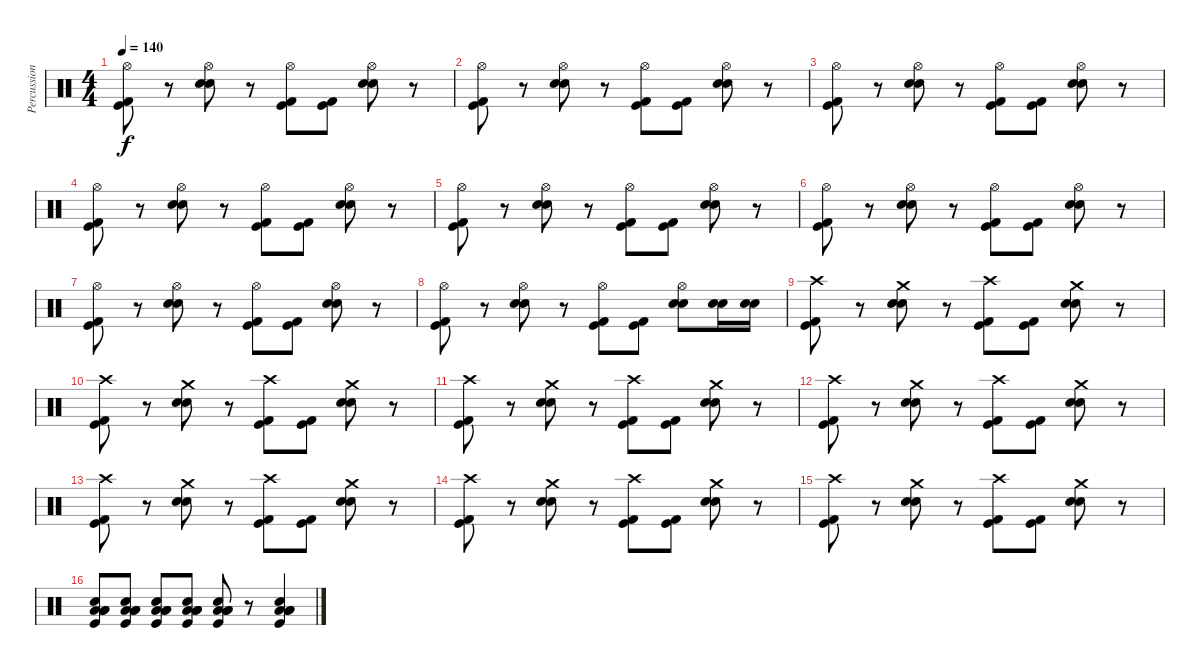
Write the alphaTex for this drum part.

\track ("Percussions" "Percussion") {instrument percussion}
\staff {score}
\articulation defaults
\ts (4 4)
\tempo 140
\clef neutral
\ks c
("Hi-Hat (open)" "Kick (hit)" "Kick (hit) 2").8{dy f} r.8 ("Hi-Hat (open)" "Snare (hit) 2" "Electric Snare (hit)").8 r.8 ("Hi-Hat (open)" "Kick (hit)" "Kick (hit) 2").8 ("Kick (hit)" "Kick (hit) 2").8 ("Hi-Hat (open)" "Snare (hit) 2" "Electric Snare (hit)").8 r.8 |
("Hi-Hat (open)" "Kick (hit)" "Kick (hit) 2").8 r.8 ("Hi-Hat (open)" "Snare (hit) 2" "Electric Snare (hit)").8 r.8 ("Hi-Hat (open)" "Kick (hit)" "Kick (hit) 2").8 ("Kick (hit)" "Kick (hit) 2").8 ("Hi-Hat (open)" "Snare (hit) 2" "Electric Snare (hit)").8 r.8 |
("Hi-Hat (open)" "Kick (hit)" "Kick (hit) 2").8 r.8 ("Hi-Hat (open)" "Snare (hit) 2" "Electric Snare (hit)").8 r.8 ("Hi-Hat (open)" "Kick (hit)" "Kick (hit) 2").8 ("Kick (hit)" "Kick (hit) 2").8 ("Hi-Hat (open)" "Snare (hit) 2" "Electric Snare (hit)").8 r.8 |
("Hi-Hat (open)" "Kick (hit)" "Kick (hit) 2").8 r.8 ("Hi-Hat (open)" "Snare (hit) 2" "Electric Snare (hit)").8 r.8 ("Hi-Hat (open)" "Kick (hit)" "Kick (hit) 2").8 ("Kick (hit)" "Kick (hit) 2").8 ("Hi-Hat (open)" "Snare (hit) 2" "Electric Snare (hit)").8 r.8 |
("Hi-Hat (open)" "Kick (hit)" "Kick (hit) 2").8 r.8 ("Hi-Hat (open)" "Snare (hit) 2" "Electric Snare (hit)").8 r.8 ("Hi-Hat (open)" "Kick (hit)" "Kick (hit) 2").8 ("Kick (hit)" "Kick (hit) 2").8 ("Hi-Hat (open)" "Snare (hit) 2" "Electric Snare (hit)").8 r.8 |
("Hi-Hat (open)" "Kick (hit)" "Kick (hit) 2").8 r.8 ("Hi-Hat (open)" "Snare (hit) 2" "Electric Snare (hit)").8 r.8 ("Hi-Hat (open)" "Kick (hit)" "Kick (hit) 2").8 ("Kick (hit)" "Kick (hit) 2").8 ("Hi-Hat (open)" "Snare (hit) 2" "Electric Snare (hit)").8 r.8 |
("Hi-Hat (open)" "Kick (hit)" "Kick (hit) 2").8 r.8 ("Hi-Hat (open)" "Snare (hit) 2" "Electric Snare (hit)").8 r.8 ("Hi-Hat (open)" "Kick (hit)" "Kick (hit) 2").8 ("Kick (hit)" "Kick (hit) 2").8 ("Hi-Hat (open)" "Snare (hit) 2" "Electric Snare (hit)").8 r.8 |
("Hi-Hat (open)" "Kick (hit)" "Kick (hit) 2").8 r.8 ("Hi-Hat (open)" "Snare (hit) 2" "Electric Snare (hit)").8 r.8 ("Hi-Hat (open)" "Kick (hit)" "Kick (hit) 2").8 ("Kick (hit)" "Kick (hit) 2").8 ("Hi-Hat (open)" "Snare (hit) 2" "Electric Snare (hit)").8 ("Snare (hit) 2" "Electric Snare (hit)").16 ("Snare (hit) 2" "Electric Snare (hit)").16 |
("Crash high (hit)" "Kick (hit)" "Kick (hit) 2").8 r.8 ("Crash medium (hit)" "Snare (hit) 2" "Electric Snare (hit)").8 r.8 ("Crash high (hit)" "Kick (hit)" "Kick (hit) 2").8 ("Kick (hit)" "Kick (hit) 2").8 ("Crash medium (hit)" "Snare (hit) 2" "Electric Snare (hit)").8 r.8 |
("Crash high (hit)" "Kick (hit)" "Kick (hit) 2").8 r.8 ("Crash medium (hit)" "Snare (hit) 2" "Electric Snare (hit)").8 r.8 ("Crash high (hit)" "Kick (hit)" "Kick (hit) 2").8 ("Kick (hit)" "Kick (hit) 2").8 ("Crash medium (hit)" "Snare (hit) 2" "Electric Snare (hit)").8 r.8 |
("Crash high (hit)" "Kick (hit)" "Kick (hit) 2").8 r.8 ("Crash medium (hit)" "Snare (hit) 2" "Electric Snare (hit)").8 r.8 ("Crash high (hit)" "Kick (hit)" "Kick (hit) 2").8 ("Kick (hit)" "Kick (hit) 2").8 ("Crash medium (hit)" "Snare (hit) 2" "Electric Snare (hit)").8 r.8 |
("Crash high (hit)" "Kick (hit)" "Kick (hit) 2").8 r.8 ("Crash medium (hit)" "Snare (hit) 2" "Electric Snare (hit)").8 r.8 ("Crash high (hit)" "Kick (hit)" "Kick (hit) 2").8 ("Kick (hit)" "Kick (hit) 2").8 ("Crash medium (hit)" "Snare (hit) 2" "Electric Snare (hit)").8 r.8 |
("Crash high (hit)" "Kick (hit)" "Kick (hit) 2").8 r.8 ("Crash medium (hit)" "Snare (hit) 2" "Electric Snare (hit)").8 r.8 ("Crash high (hit)" "Kick (hit)" "Kick (hit) 2").8 ("Kick (hit)" "Kick (hit) 2").8 ("Crash medium (hit)" "Snare (hit) 2" "Electric Snare (hit)").8 r.8 |
("Crash high (hit)" "Kick (hit)" "Kick (hit) 2").8 r.8 ("Crash medium (hit)" "Snare (hit) 2" "Electric Snare (hit)").8 r.8 ("Crash high (hit)" "Kick (hit)" "Kick (hit) 2").8 ("Kick (hit)" "Kick (hit) 2").8 ("Crash medium (hit)" "Snare (hit) 2" "Electric Snare (hit)").8 r.8 |
("Crash high (hit)" "Kick (hit)" "Kick (hit) 2").8 r.8 ("Crash medium (hit)" "Snare (hit) 2" "Electric Snare (hit)").8 r.8 ("Crash high (hit)" "Kick (hit)" "Kick (hit) 2").8 ("Kick (hit)" "Kick (hit) 2").8 ("Crash medium (hit)" "Snare (hit) 2" "Electric Snare (hit)").8 r.8 |
("Electric Snare (hit)" "Low Tom (hit)" "Low Tom (hit)" "Low Tom (hit)" "Kick (hit)").8 ("Electric Snare (hit)" "Low Tom (hit)" "Low Tom (hit)" "Low Tom (hit)" "Kick (hit)").8 ("Electric Snare (hit)" "Low Tom (hit)" "Low Tom (hit)" "Low Tom (hit)" "Kick (hit)").8 ("Electric Snare (hit)" "Low Tom (hit)" "Low Tom (hit)" "Low Tom (hit)" "Kick (hit)").8 ("Electric Snare (hit)" "Low Tom (hit)" "Low Tom (hit)" "Low Tom (hit)" "Kick (hit)").8 r.8 ("Electric Snare (hit)" "Low Tom (hit)" "Low Tom (hit)" "Low Tom (hit)" "Kick (hit)").4
